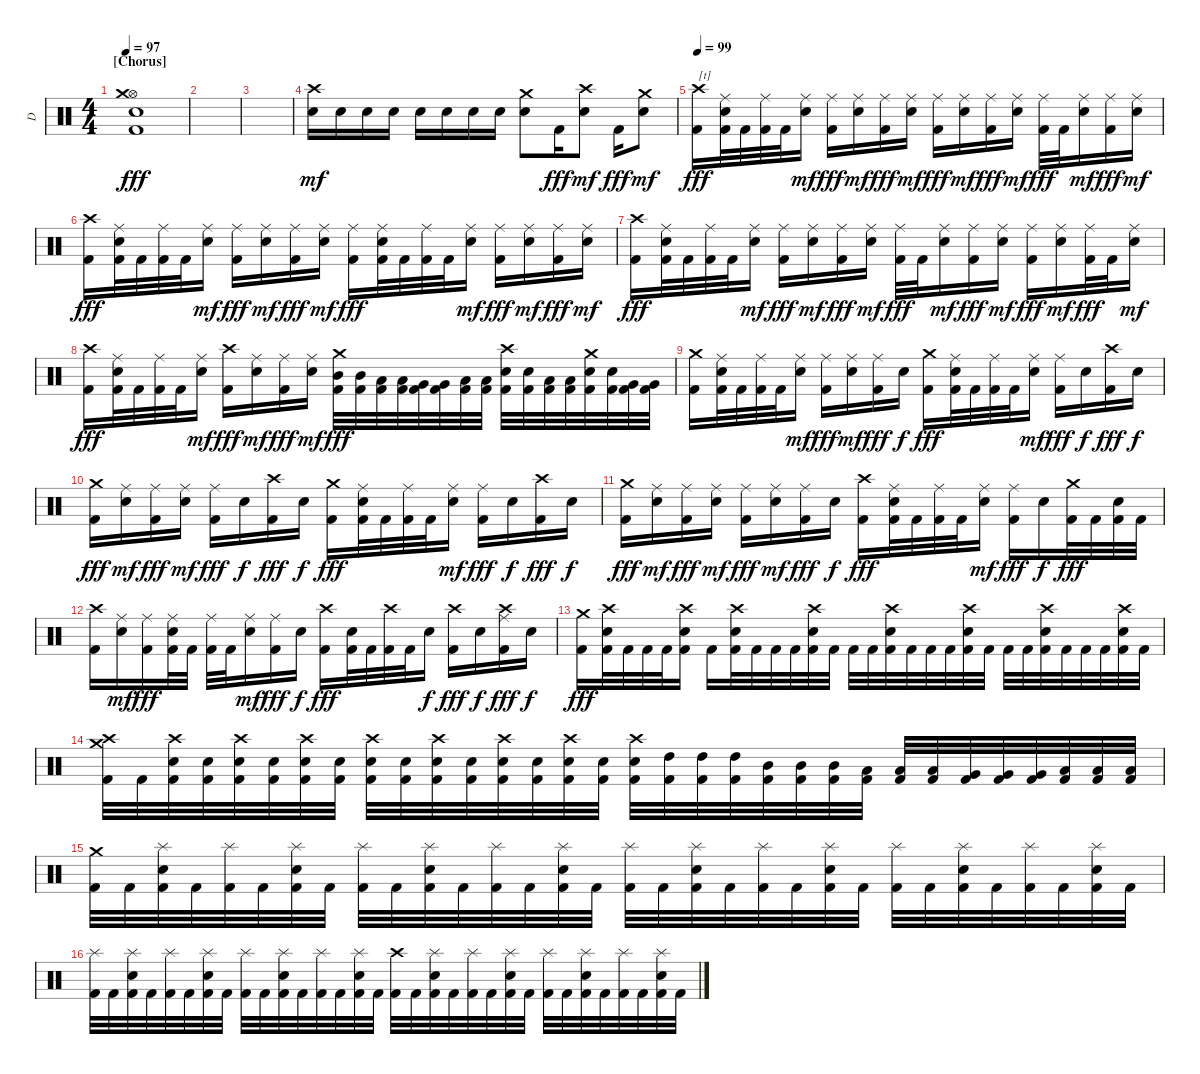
\track ("D" "D") {instrument percussion}
\staff {score}
\articulation defaults
\ts (4 4)
\section ("" "[Chorus]")
\tempo 97
\clef neutral
\ks c
("Hi-Hat (open)" "Crash medium (hit)" "Snare (hit) 2" "Kick (hit) 2").1{dy fff} |
|
|
("Crash high (hit)" "Snare (hit) 2").16{dy mf} "Snare (hit) 2".16 "Snare (hit) 2".16 "Snare (hit) 2".16 "Snare (hit) 2".16 "Snare (hit) 2".16 "Snare (hit) 2".16 "Snare (hit) 2".16 ("Crash medium (hit)" "Snare (hit) 2").8 "Kick (hit) 2".16{dy fff} ("Crash high (hit)" "Snare (hit) 2").8{dy mf} "Kick (hit) 2".16{dy fff} ("Crash medium (hit)" "Snare (hit) 2").8{dy mf} |
\section ("" "")
\tempo 99
("Crash high (hit)" "Kick (hit) 2").16{txt "[t]" dy fff} ("Ride (middle)" "Snare (hit) 2" "Kick (hit) 2").32 "Kick (hit) 2".32 ("Ride (middle)" "Kick (hit) 2").32 "Kick (hit) 2".32 ("Ride (middle)" "Snare (hit) 2").16{dy mf} ("Ride (middle)" "Kick (hit) 2").16{dy fff} ("Ride (middle)" "Snare (hit) 2").16{dy mf} ("Ride (middle)" "Kick (hit) 2").16{dy fff} ("Ride (middle)" "Snare (hit) 2").16{dy mf} ("Ride (middle)" "Kick (hit) 2").16{dy fff} ("Ride (middle)" "Snare (hit) 2").16{dy mf} ("Ride (middle)" "Kick (hit) 2").16{dy fff} ("Ride (middle)" "Snare (hit) 2").16{dy mf} ("Ride (middle)" "Kick (hit) 2").32{dy fff} "Kick (hit) 2".32 ("Ride (middle)" "Snare (hit) 2").16{dy mf} ("Ride (middle)" "Kick (hit) 2").16{dy fff} ("Ride (middle)" "Snare (hit) 2").16{dy mf} |
("Crash high (hit)" "Kick (hit) 2").16{dy fff} ("Ride (middle)" "Snare (hit) 2" "Kick (hit) 2").32 "Kick (hit) 2".32 ("Ride (middle)" "Kick (hit) 2").32 "Kick (hit) 2".32 ("Ride (middle)" "Snare (hit) 2").16{dy mf} ("Ride (middle)" "Kick (hit) 2").16{dy fff} ("Ride (middle)" "Snare (hit) 2").16{dy mf} ("Ride (middle)" "Kick (hit) 2").16{dy fff} ("Ride (middle)" "Snare (hit) 2").16{dy mf} ("Ride (middle)" "Kick (hit) 2").16{dy fff} ("Ride (middle)" "Snare (hit) 2" "Kick (hit) 2").32 "Kick (hit) 2".32 ("Ride (middle)" "Kick (hit) 2").32 "Kick (hit) 2".32 ("Ride (middle)" "Snare (hit) 2").16{dy mf} ("Ride (middle)" "Kick (hit) 2").16{dy fff} ("Ride (middle)" "Snare (hit) 2").16{dy mf} ("Ride (middle)" "Kick (hit) 2").16{dy fff} ("Ride (middle)" "Snare (hit) 2").16{dy mf} |
("Crash high (hit)" "Kick (hit) 2").16{dy fff} ("Ride (middle)" "Snare (hit) 2" "Kick (hit) 2").32 "Kick (hit) 2".32 ("Ride (middle)" "Kick (hit) 2").32 "Kick (hit) 2".32 ("Ride (middle)" "Snare (hit) 2").16{dy mf} ("Ride (middle)" "Kick (hit) 2").16{dy fff} ("Ride (middle)" "Snare (hit) 2").16{dy mf} ("Ride (middle)" "Kick (hit) 2").16{dy fff} ("Ride (middle)" "Snare (hit) 2").16{dy mf} ("Ride (middle)" "Kick (hit) 2").32{dy fff} "Kick (hit) 2".32 ("Ride (middle)" "Snare (hit) 2").16{dy mf} ("Ride (middle)" "Kick (hit) 2").16{dy fff} ("Ride (middle)" "Snare (hit) 2").16{dy mf} ("Ride (middle)" "Kick (hit) 2").16{dy fff} ("Ride (middle)" "Snare (hit) 2").16{dy mf} ("Ride (middle)" "Kick (hit) 2").32{dy fff} "Kick (hit) 2".32 ("Ride (middle)" "Snare (hit) 2").16{dy mf} |
("Crash high (hit)" "Kick (hit) 2").16{dy fff} ("Ride (middle)" "Snare (hit) 2" "Kick (hit) 2").32 "Kick (hit) 2".32 ("Ride (middle)" "Kick (hit) 2").32 "Kick (hit) 2".32 ("Ride (middle)" "Snare (hit) 2").16{dy mf} ("Crash high (hit)" "Kick (hit) 2").16{dy fff} ("Ride (middle)" "Snare (hit) 2").16{dy mf} ("Ride (middle)" "Kick (hit) 2").16{dy fff} ("Ride (middle)" "Snare (hit) 2").16{dy mf} ("Crash medium (hit)" "Mid Tom (hit)" "Kick (hit) 2").32{dy fff} ("Mid Tom (hit)" "Kick (hit) 2").32 ("Low Tom (hit)" "Kick (hit) 2").32 ("Low Tom (hit)" "Kick (hit) 2").32 ("Very Low Tom (hit)" "Kick (hit) 2").32 ("Very Low Tom (hit)" "Kick (hit) 2").32 ("Low Floor Tom (hit)" "Kick (hit) 2").32 ("Low Floor Tom (hit)" "Kick (hit) 2").32 ("Crash high (hit)" "Snare (hit) 2" "Kick (hit) 2").32 ("Snare (hit) 2" "Kick (hit) 2").32 ("Low Tom (hit)" "Kick (hit) 2").32 ("Low Tom (hit)" "Kick (hit) 2").32 ("Crash medium (hit)" "Snare (hit) 2" "Kick (hit) 2").32 ("Snare (hit) 2" "Kick (hit) 2").32 ("Very Low Tom (hit)" "Kick (hit) 2").32 ("Very Low Tom (hit)" "Kick (hit) 2").32 |
("Crash medium (hit)" "Kick (hit) 2").16 ("Ride (middle)" "Snare (hit) 2" "Kick (hit) 2").32 "Kick (hit) 2".32 ("Ride (middle)" "Kick (hit) 2").32 "Kick (hit) 2".32 ("Ride (middle)" "Snare (hit) 2").16{dy mf} ("Ride (middle)" "Kick (hit) 2").16{dy fff} ("Ride (middle)" "Snare (hit) 2").16{dy mf} ("Ride (middle)" "Kick (hit) 2").16{dy fff} "Snare (hit) 2".16{dy f} ("Crash medium (hit)" "Kick (hit) 2").16{dy fff} ("Ride (middle)" "Snare (hit) 2" "Kick (hit) 2").32 "Kick (hit) 2".32 ("Ride (middle)" "Kick (hit) 2").32 "Kick (hit) 2".32 ("Ride (middle)" "Snare (hit) 2").16{dy mf} ("Ride (middle)" "Kick (hit) 2").16{dy fff} "Snare (hit) 2".16{dy f} ("Crash high (hit)" "Kick (hit) 2").16{dy fff} "Snare (hit) 2".16{dy f} |
("Crash medium (hit)" "Kick (hit) 2").16{dy fff} ("Ride (middle)" "Snare (hit) 2").16{dy mf} ("Ride (middle)" "Kick (hit) 2").16{dy fff} ("Ride (middle)" "Snare (hit) 2").16{dy mf} ("Ride (middle)" "Kick (hit) 2").16{dy fff} "Snare (hit) 2".16{dy f} ("Crash high (hit)" "Kick (hit) 2").16{dy fff} "Snare (hit) 2".16{dy f} ("Crash medium (hit)" "Kick (hit) 2").16{dy fff} ("Ride (middle)" "Snare (hit) 2" "Kick (hit) 2").32 "Kick (hit) 2".32 ("Ride (middle)" "Kick (hit) 2").32 "Kick (hit) 2".32 ("Ride (middle)" "Snare (hit) 2").16{dy mf} ("Ride (middle)" "Kick (hit) 2").16{dy fff} "Snare (hit) 2".16{dy f} ("Crash high (hit)" "Kick (hit) 2").16{dy fff} "Snare (hit) 2".16{dy f} |
("Crash medium (hit)" "Kick (hit) 2").16{dy fff} ("Ride (middle)" "Snare (hit) 2").16{dy mf} ("Ride (middle)" "Kick (hit) 2").16{dy fff} ("Ride (middle)" "Snare (hit) 2").16{dy mf} ("Ride (middle)" "Kick (hit) 2").16{dy fff} ("Ride (middle)" "Snare (hit) 2").16{dy mf} ("Ride (middle)" "Kick (hit) 2").16{dy fff} "Snare (hit) 2".16{dy f} ("Crash high (hit)" "Kick (hit) 2").16{dy fff} ("Ride (middle)" "Snare (hit) 2" "Kick (hit) 2").32 "Kick (hit) 2".32 ("Ride (middle)" "Kick (hit) 2").32 "Kick (hit) 2".32 ("Ride (middle)" "Snare (hit) 2").16{dy mf} ("Ride (middle)" "Kick (hit) 2").16{dy fff} "Snare (hit) 2".16{dy f} ("Crash medium (hit)" "Kick (hit) 2").32{dy fff} "Kick (hit) 2".32 ("Snare (hit) 2" "Kick (hit) 2").32 "Kick (hit) 2".32 |
("Crash high (hit)" "Kick (hit) 2").16 ("Ride (middle)" "Snare (hit) 2").16{dy mf} ("Ride (middle)" "Kick (hit) 2").16{dy fff} ("Ride (middle)" "Snare (hit) 2" "Kick (hit) 2").32 "Kick (hit) 2".32 ("Ride (middle)" "Kick (hit) 2").32 "Kick (hit) 2".32 ("Ride (middle)" "Snare (hit) 2").16{dy mf} ("Ride (middle)" "Kick (hit) 2").16{dy fff} "Snare (hit) 2".16{dy f} ("Crash high (hit)" "Kick (hit) 2").16{dy fff} ("Snare (hit) 2" "Kick (hit) 2").32 "Kick (hit) 2".32 ("Crash high (hit)" "Kick (hit) 2").32 "Kick (hit) 2".32 "Snare (hit) 2".16{dy f} ("Crash high (hit)" "Kick (hit) 2").16{dy fff} "Snare (hit) 2".16{dy f} ("Crash high (hit)" "Ride (middle)" "Kick (hit) 2").16{dy fff} "Snare (hit) 2".16{dy f} |
("Crash medium (hit)" "Kick (hit) 2").16{dy fff} ("Crash high (hit)" "Snare (hit) 2" "Kick (hit) 2").32 "Kick (hit) 2".32 "Kick (hit) 2".32 "Kick (hit) 2".32 ("Crash high (hit)" "Snare (hit) 2" "Kick (hit) 2").16 "Kick (hit) 2".16 ("Crash high (hit)" "Snare (hit) 2" "Kick (hit) 2").32 "Kick (hit) 2".32 "Kick (hit) 2".32 "Kick (hit) 2".32 ("Crash high (hit)" "Snare (hit) 2" "Kick (hit) 2").32 "Kick (hit) 2".32 "Kick (hit) 2".32 "Kick (hit) 2".32 ("Crash high (hit)" "Snare (hit) 2" "Kick (hit) 2").32 "Kick (hit) 2".32 "Kick (hit) 2".32 "Kick (hit) 2".32 ("Crash high (hit)" "Snare (hit) 2" "Kick (hit) 2").32 "Kick (hit) 2".32 "Kick (hit) 2".32 "Kick (hit) 2".32 ("Crash high (hit)" "Snare (hit) 2" "Kick (hit) 2").32 "Kick (hit) 2".32 "Kick (hit) 2".32 "Kick (hit) 2".32 ("Crash high (hit)" "Snare (hit) 2" "Kick (hit) 2").32 "Kick (hit) 2".32 |
("Crash high (hit)" "Crash medium (hit)" "Kick (hit) 2").32 "Kick (hit) 2".32 ("Crash high (hit)" "Snare (hit) 2" "Kick (hit) 2").32 ("Snare (hit) 2" "Kick (hit) 2").32 ("Crash high (hit)" "Snare (hit) 2" "Kick (hit) 2").32 ("Snare (hit) 2" "Kick (hit) 2").32 ("Crash high (hit)" "Snare (hit) 2" "Kick (hit) 2").32 ("Snare (hit) 2" "Kick (hit) 2").32 ("Crash high (hit)" "Snare (hit) 2" "Kick (hit) 2").32 ("Snare (hit) 2" "Kick (hit) 2").32 ("Crash high (hit)" "Snare (hit) 2" "Kick (hit) 2").32 ("Snare (hit) 2" "Kick (hit) 2").32 ("Crash high (hit)" "Snare (hit) 2" "Kick (hit) 2").32 ("Snare (hit) 2" "Kick (hit) 2").32 ("Crash high (hit)" "Snare (hit) 2" "Kick (hit) 2").32 ("Snare (hit) 2" "Kick (hit) 2").32 ("Crash high (hit)" "Snare (hit) 2" "Kick (hit) 2").32 ("High Tom (hit)" "Kick (hit) 2").32 ("High Tom (hit)" "Kick (hit) 2").32 ("High Tom (hit)" "Kick (hit) 2").32 ("Mid Tom (hit)" "Kick (hit) 2").32 ("Mid Tom (hit)" "Kick (hit) 2").32 ("Mid Tom (hit)" "Kick (hit) 2").32 ("Low Tom (hit)" "Kick (hit) 2").32 ("Low Tom (hit)" "Kick (hit) 2").32 ("Low Tom (hit)" "Kick (hit) 2").32 ("Very Low Tom (hit)" "Kick (hit) 2").32 ("Very Low Tom (hit)" "Kick (hit) 2").32 ("Very Low Tom (hit)" "Kick (hit) 2").32 ("Low Floor Tom (hit)" "Kick (hit) 2").32 ("Low Floor Tom (hit)" "Kick (hit) 2").32 ("Low Floor Tom (hit)" "Kick (hit) 2").32 |
\section ("" "")
("Crash medium (hit)" "Kick (hit) 2").32 "Kick (hit) 2".32 ("Splash (hit)" "Snare (hit) 2" "Kick (hit) 2").32 "Kick (hit) 2".32 ("Splash (hit)" "Kick (hit) 2").32 "Kick (hit) 2".32 ("Splash (hit)" "Snare (hit) 2" "Kick (hit) 2").32 "Kick (hit) 2".32 ("Splash (hit)" "Kick (hit) 2").32 "Kick (hit) 2".32 ("Splash (hit)" "Snare (hit) 2" "Kick (hit) 2").32 "Kick (hit) 2".32 ("Splash (hit)" "Kick (hit) 2").32 "Kick (hit) 2".32 ("Splash (hit)" "Snare (hit) 2" "Kick (hit) 2").32 "Kick (hit) 2".32 ("Splash (hit)" "Kick (hit) 2").32 "Kick (hit) 2".32 ("Splash (hit)" "Snare (hit) 2" "Kick (hit) 2").32 "Kick (hit) 2".32 ("Splash (hit)" "Kick (hit) 2").32 "Kick (hit) 2".32 ("Splash (hit)" "Snare (hit) 2" "Kick (hit) 2").32 "Kick (hit) 2".32 ("Splash (hit)" "Kick (hit) 2").32 "Kick (hit) 2".32 ("Splash (hit)" "Snare (hit) 2" "Kick (hit) 2").32 "Kick (hit) 2".32 ("Splash (hit)" "Kick (hit) 2").32 "Kick (hit) 2".32 ("Splash (hit)" "Snare (hit) 2" "Kick (hit) 2").32 "Kick (hit) 2".32 |
("Splash (hit)" "Kick (hit) 2").32 "Kick (hit) 2".32 ("Splash (hit)" "Snare (hit) 2" "Kick (hit) 2").32 "Kick (hit) 2".32 ("Splash (hit)" "Kick (hit) 2").32 "Kick (hit) 2".32 ("Splash (hit)" "Snare (hit) 2" "Kick (hit) 2").32 "Kick (hit) 2".32 ("Splash (hit)" "Kick (hit) 2").32 "Kick (hit) 2".32 ("Splash (hit)" "Snare (hit) 2" "Kick (hit) 2").32 "Kick (hit) 2".32 ("Splash (hit)" "Kick (hit) 2").32 "Kick (hit) 2".32 ("Splash (hit)" "Snare (hit) 2" "Kick (hit) 2").32 "Kick (hit) 2".32 ("Crash high (hit)" "Kick (hit) 2").32 "Kick (hit) 2".32 ("Splash (hit)" "Snare (hit) 2" "Kick (hit) 2").32 "Kick (hit) 2".32 ("Splash (hit)" "Kick (hit) 2").32 "Kick (hit) 2".32 ("Splash (hit)" "Snare (hit) 2" "Kick (hit) 2").32 "Kick (hit) 2".32 ("Splash (hit)" "Kick (hit) 2").32 "Kick (hit) 2".32 ("Splash (hit)" "Snare (hit) 2" "Kick (hit) 2").32 "Kick (hit) 2".32 ("Splash (hit)" "Kick (hit) 2").32 "Kick (hit) 2".32 ("Splash (hit)" "Snare (hit) 2" "Kick (hit) 2").32 "Kick (hit) 2".32
